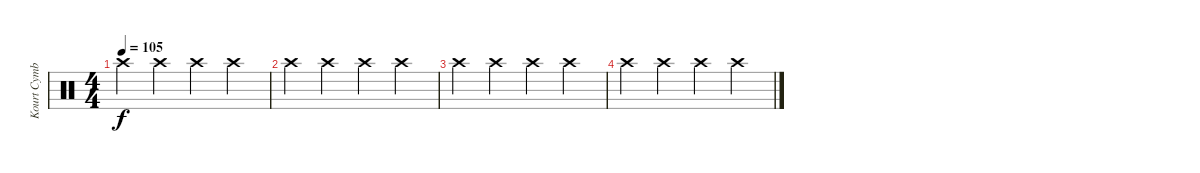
\track ("Kourt Cymbales" "Kourt Cymb") {instrument percussion}
\staff {score}
\articulation defaults
\ts (4 4)
\tempo 105
\clef neutral
\ks c "Crash high (hit)".4{dy f} "Crash high (hit)".4 "Crash high (hit)".4 "Crash high (hit)".4
|
"Crash high (hit)".4 "Crash high (hit)".4 "Crash high (hit)".4 "Crash high (hit)".4 |
"Crash high (hit)".4 "Crash high (hit)".4 "Crash high (hit)".4 "Crash high (hit)".4 |
"Crash high (hit)".4 "Crash high (hit)".4 "Crash high (hit)".4 "Crash high (hit)".4
